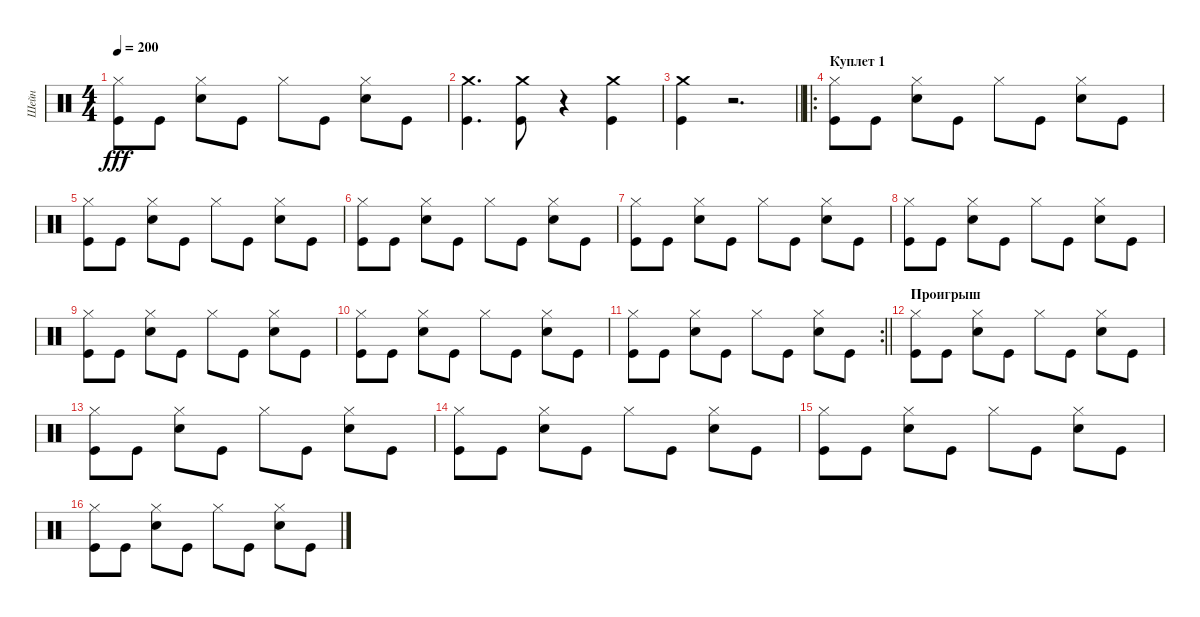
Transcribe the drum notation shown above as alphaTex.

\track ("Шейн" "Шейн") {instrument percussion}
\staff {score}
\articulation defaults
\ts (4 4)
\tempo 200
\clef neutral
\ks c
("Kick (hit)" "Hi-Hat (closed)").8{dy fff} "Kick (hit)".8 ("Snare (hit) 2" "Hi-Hat (closed)").8 "Kick (hit)".8 "Hi-Hat (closed)".8 "Kick (hit)".8 ("Snare (hit) 2" "Hi-Hat (closed)").8 "Kick (hit)".8 |
("Kick (hit)" "Crash medium (hit)").4{d} ("Kick (hit)" "Crash medium (hit)").8 r.4 ("Crash medium (hit)" "Kick (hit)").4 |
\barLineRight lightlight
("Kick (hit)" "Crash medium (hit)").4 r.2{d} |
\ro
\section ("" "Куплет 1")
("Kick (hit)" "Hi-Hat (closed)").8 "Kick (hit)".8 ("Snare (hit) 2" "Hi-Hat (closed)").8 "Kick (hit)".8 "Hi-Hat (closed)".8 "Kick (hit)".8 ("Snare (hit) 2" "Hi-Hat (closed)").8 "Kick (hit)".8 |
("Kick (hit)" "Hi-Hat (closed)").8 "Kick (hit)".8 ("Snare (hit) 2" "Hi-Hat (closed)").8 "Kick (hit)".8 "Hi-Hat (closed)".8 "Kick (hit)".8 ("Snare (hit) 2" "Hi-Hat (closed)").8 "Kick (hit)".8 |
("Kick (hit)" "Hi-Hat (closed)").8 "Kick (hit)".8 ("Snare (hit) 2" "Hi-Hat (closed)").8 "Kick (hit)".8 "Hi-Hat (closed)".8 "Kick (hit)".8 ("Snare (hit) 2" "Hi-Hat (closed)").8 "Kick (hit)".8 |
("Kick (hit)" "Hi-Hat (closed)").8 "Kick (hit)".8 ("Snare (hit) 2" "Hi-Hat (closed)").8 "Kick (hit)".8 "Hi-Hat (closed)".8 "Kick (hit)".8 ("Snare (hit) 2" "Hi-Hat (closed)").8 "Kick (hit)".8 |
("Kick (hit)" "Hi-Hat (closed)").8 "Kick (hit)".8 ("Snare (hit) 2" "Hi-Hat (closed)").8 "Kick (hit)".8 "Hi-Hat (closed)".8 "Kick (hit)".8 ("Snare (hit) 2" "Hi-Hat (closed)").8 "Kick (hit)".8 |
("Kick (hit)" "Hi-Hat (closed)").8 "Kick (hit)".8 ("Snare (hit) 2" "Hi-Hat (closed)").8 "Kick (hit)".8 "Hi-Hat (closed)".8 "Kick (hit)".8 ("Snare (hit) 2" "Hi-Hat (closed)").8 "Kick (hit)".8 |
("Kick (hit)" "Hi-Hat (closed)").8 "Kick (hit)".8 ("Snare (hit) 2" "Hi-Hat (closed)").8 "Kick (hit)".8 "Hi-Hat (closed)".8 "Kick (hit)".8 ("Snare (hit) 2" "Hi-Hat (closed)").8 "Kick (hit)".8 |
\rc 2
\barLineRight lightlight
("Kick (hit)" "Hi-Hat (closed)").8 "Kick (hit)".8 ("Snare (hit) 2" "Hi-Hat (closed)").8 "Kick (hit)".8 "Hi-Hat (closed)".8 "Kick (hit)".8 ("Snare (hit) 2" "Hi-Hat (closed)").8 "Kick (hit)".8 |
\section ("" "Проигрыш")
("Kick (hit)" "Hi-Hat (closed)").8 "Kick (hit)".8 ("Snare (hit) 2" "Hi-Hat (closed)").8 "Kick (hit)".8 "Hi-Hat (closed)".8 "Kick (hit)".8 ("Snare (hit) 2" "Hi-Hat (closed)").8 "Kick (hit)".8 |
("Kick (hit)" "Hi-Hat (closed)").8 "Kick (hit)".8 ("Snare (hit) 2" "Hi-Hat (closed)").8 "Kick (hit)".8 "Hi-Hat (closed)".8 "Kick (hit)".8 ("Snare (hit) 2" "Hi-Hat (closed)").8 "Kick (hit)".8 |
("Kick (hit)" "Hi-Hat (closed)").8 "Kick (hit)".8 ("Snare (hit) 2" "Hi-Hat (closed)").8 "Kick (hit)".8 "Hi-Hat (closed)".8 "Kick (hit)".8 ("Snare (hit) 2" "Hi-Hat (closed)").8 "Kick (hit)".8 |
("Kick (hit)" "Hi-Hat (closed)").8 "Kick (hit)".8 ("Snare (hit) 2" "Hi-Hat (closed)").8 "Kick (hit)".8 "Hi-Hat (closed)".8 "Kick (hit)".8 ("Snare (hit) 2" "Hi-Hat (closed)").8 "Kick (hit)".8 |
("Kick (hit)" "Hi-Hat (closed)").8 "Kick (hit)".8 ("Snare (hit) 2" "Hi-Hat (closed)").8 "Kick (hit)".8 "Hi-Hat (closed)".8 "Kick (hit)".8 ("Snare (hit) 2" "Hi-Hat (closed)").8 "Kick (hit)".8
